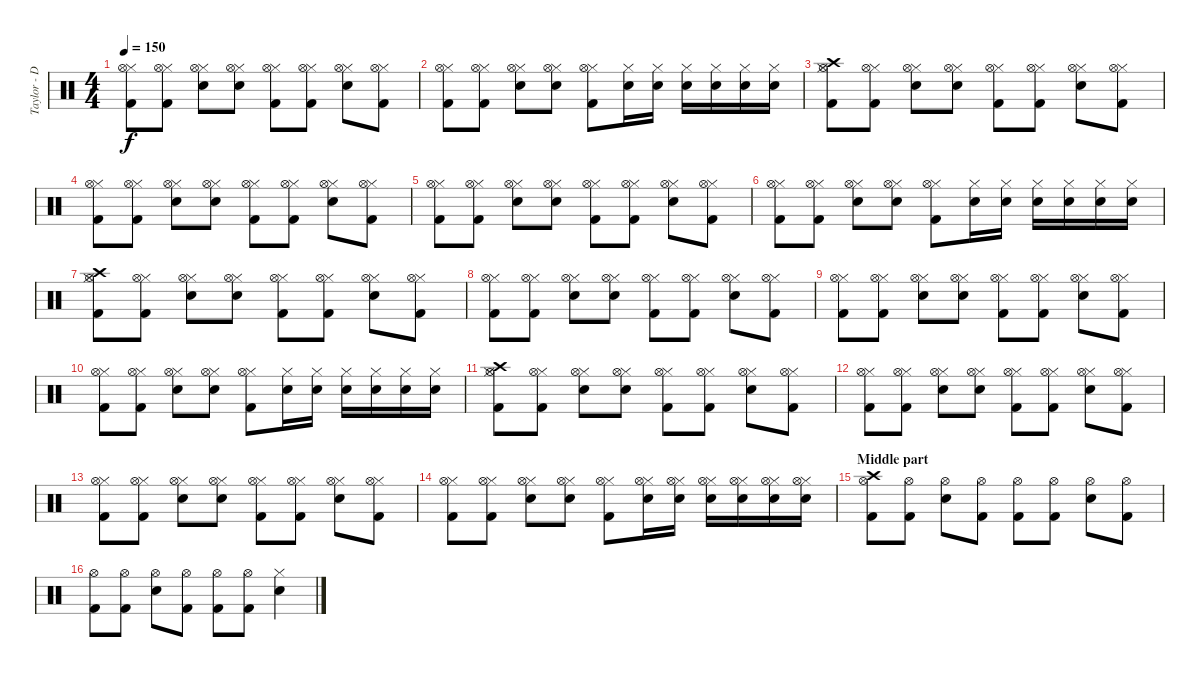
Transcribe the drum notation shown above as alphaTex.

\track ("Taylor - Drums" "Taylor - D") {instrument percussion}
\staff {score}
\articulation defaults
\ts (4 4)
\tempo 150
\clef neutral
\ks c
("Kick (hit) 2" "Hi-Hat (closed)" "Hi-Hat (open)").8{dy f} ("Kick (hit) 2" "Hi-Hat (closed)" "Hi-Hat (open)").8 ("Snare (hit) 2" "Hi-Hat (closed)" "Hi-Hat (open)").8 ("Snare (hit) 2" "Hi-Hat (closed)" "Hi-Hat (open)").8 ("Kick (hit) 2" "Hi-Hat (closed)" "Hi-Hat (open)").8 ("Kick (hit) 2" "Hi-Hat (closed)" "Hi-Hat (open)").8 ("Snare (hit) 2" "Hi-Hat (closed)" "Hi-Hat (open)").8 ("Kick (hit) 2" "Hi-Hat (closed)" "Hi-Hat (open)").8 |
("Kick (hit) 2" "Hi-Hat (closed)" "Hi-Hat (open)").8 ("Kick (hit) 2" "Hi-Hat (closed)" "Hi-Hat (open)").8 ("Snare (hit) 2" "Hi-Hat (closed)" "Hi-Hat (open)").8 ("Snare (hit) 2" "Hi-Hat (closed)" "Hi-Hat (open)").8 ("Kick (hit) 2" "Hi-Hat (closed)" "Hi-Hat (open)").8 ("Snare (hit) 2" "Hi-Hat (closed)").16 ("Snare (hit) 2" "Hi-Hat (closed)").16 ("Snare (hit) 2" "Hi-Hat (closed)").16 ("Snare (hit) 2" "Hi-Hat (closed)").16 ("Snare (hit) 2" "Hi-Hat (closed)").16 ("Snare (hit) 2" "Hi-Hat (closed)").16 |
("Kick (hit) 2" "Hi-Hat (closed)" "Hi-Hat (open)" "Crash high (hit)").8 ("Kick (hit) 2" "Hi-Hat (closed)" "Hi-Hat (open)").8 ("Snare (hit) 2" "Hi-Hat (closed)" "Hi-Hat (open)").8 ("Snare (hit) 2" "Hi-Hat (closed)" "Hi-Hat (open)").8 ("Kick (hit) 2" "Hi-Hat (closed)" "Hi-Hat (open)").8 ("Kick (hit) 2" "Hi-Hat (closed)" "Hi-Hat (open)").8 ("Snare (hit) 2" "Hi-Hat (closed)" "Hi-Hat (open)").8 ("Kick (hit) 2" "Hi-Hat (closed)" "Hi-Hat (open)").8 |
("Kick (hit) 2" "Hi-Hat (closed)" "Hi-Hat (open)").8 ("Kick (hit) 2" "Hi-Hat (closed)" "Hi-Hat (open)").8 ("Snare (hit) 2" "Hi-Hat (closed)" "Hi-Hat (open)").8 ("Snare (hit) 2" "Hi-Hat (closed)" "Hi-Hat (open)").8 ("Kick (hit) 2" "Hi-Hat (closed)" "Hi-Hat (open)").8 ("Kick (hit) 2" "Hi-Hat (closed)" "Hi-Hat (open)").8 ("Snare (hit) 2" "Hi-Hat (closed)" "Hi-Hat (open)").8 ("Kick (hit) 2" "Hi-Hat (closed)" "Hi-Hat (open)").8 |
("Kick (hit) 2" "Hi-Hat (closed)" "Hi-Hat (open)").8 ("Kick (hit) 2" "Hi-Hat (closed)" "Hi-Hat (open)").8 ("Snare (hit) 2" "Hi-Hat (closed)" "Hi-Hat (open)").8 ("Snare (hit) 2" "Hi-Hat (closed)" "Hi-Hat (open)").8 ("Kick (hit) 2" "Hi-Hat (closed)" "Hi-Hat (open)").8 ("Kick (hit) 2" "Hi-Hat (closed)" "Hi-Hat (open)").8 ("Snare (hit) 2" "Hi-Hat (closed)" "Hi-Hat (open)").8 ("Kick (hit) 2" "Hi-Hat (closed)" "Hi-Hat (open)").8 |
("Kick (hit) 2" "Hi-Hat (closed)" "Hi-Hat (open)").8 ("Kick (hit) 2" "Hi-Hat (closed)" "Hi-Hat (open)").8 ("Snare (hit) 2" "Hi-Hat (closed)" "Hi-Hat (open)").8 ("Snare (hit) 2" "Hi-Hat (closed)" "Hi-Hat (open)").8 ("Kick (hit) 2" "Hi-Hat (closed)" "Hi-Hat (open)").8 ("Snare (hit) 2" "Hi-Hat (closed)").16 ("Snare (hit) 2" "Hi-Hat (closed)").16 ("Snare (hit) 2" "Hi-Hat (closed)").16 ("Snare (hit) 2" "Hi-Hat (closed)").16 ("Snare (hit) 2" "Hi-Hat (closed)").16 ("Snare (hit) 2" "Hi-Hat (closed)").16 |
("Kick (hit) 2" "Hi-Hat (closed)" "Hi-Hat (open)" "Crash high (hit)").8 ("Kick (hit) 2" "Hi-Hat (closed)" "Hi-Hat (open)").8 ("Snare (hit) 2" "Hi-Hat (closed)" "Hi-Hat (open)").8 ("Snare (hit) 2" "Hi-Hat (closed)" "Hi-Hat (open)").8 ("Kick (hit) 2" "Hi-Hat (closed)" "Hi-Hat (open)").8 ("Kick (hit) 2" "Hi-Hat (closed)" "Hi-Hat (open)").8 ("Snare (hit) 2" "Hi-Hat (closed)" "Hi-Hat (open)").8 ("Kick (hit) 2" "Hi-Hat (closed)" "Hi-Hat (open)").8 |
("Kick (hit) 2" "Hi-Hat (closed)" "Hi-Hat (open)").8 ("Kick (hit) 2" "Hi-Hat (closed)" "Hi-Hat (open)").8 ("Snare (hit) 2" "Hi-Hat (closed)" "Hi-Hat (open)").8 ("Snare (hit) 2" "Hi-Hat (closed)" "Hi-Hat (open)").8 ("Kick (hit) 2" "Hi-Hat (closed)" "Hi-Hat (open)").8 ("Kick (hit) 2" "Hi-Hat (closed)" "Hi-Hat (open)").8 ("Snare (hit) 2" "Hi-Hat (closed)" "Hi-Hat (open)").8 ("Kick (hit) 2" "Hi-Hat (closed)" "Hi-Hat (open)").8 |
("Kick (hit) 2" "Hi-Hat (closed)" "Hi-Hat (open)").8 ("Kick (hit) 2" "Hi-Hat (closed)" "Hi-Hat (open)").8 ("Snare (hit) 2" "Hi-Hat (closed)" "Hi-Hat (open)").8 ("Snare (hit) 2" "Hi-Hat (closed)" "Hi-Hat (open)").8 ("Kick (hit) 2" "Hi-Hat (closed)" "Hi-Hat (open)").8 ("Kick (hit) 2" "Hi-Hat (closed)" "Hi-Hat (open)").8 ("Snare (hit) 2" "Hi-Hat (closed)" "Hi-Hat (open)").8 ("Kick (hit) 2" "Hi-Hat (closed)" "Hi-Hat (open)").8 |
("Kick (hit) 2" "Hi-Hat (closed)" "Hi-Hat (open)").8 ("Kick (hit) 2" "Hi-Hat (closed)" "Hi-Hat (open)").8 ("Snare (hit) 2" "Hi-Hat (closed)" "Hi-Hat (open)").8 ("Snare (hit) 2" "Hi-Hat (closed)" "Hi-Hat (open)").8 ("Kick (hit) 2" "Hi-Hat (closed)" "Hi-Hat (open)").8 ("Snare (hit) 2" "Hi-Hat (closed)").16 ("Snare (hit) 2" "Hi-Hat (closed)").16 ("Snare (hit) 2" "Hi-Hat (closed)").16 ("Snare (hit) 2" "Hi-Hat (closed)").16 ("Snare (hit) 2" "Hi-Hat (closed)").16 ("Snare (hit) 2" "Hi-Hat (closed)").16 |
("Kick (hit) 2" "Hi-Hat (closed)" "Hi-Hat (open)" "Crash high (hit)").8 ("Kick (hit) 2" "Hi-Hat (closed)" "Hi-Hat (open)").8 ("Snare (hit) 2" "Hi-Hat (closed)" "Hi-Hat (open)").8 ("Snare (hit) 2" "Hi-Hat (closed)" "Hi-Hat (open)").8 ("Kick (hit) 2" "Hi-Hat (closed)" "Hi-Hat (open)").8 ("Kick (hit) 2" "Hi-Hat (closed)" "Hi-Hat (open)").8 ("Snare (hit) 2" "Hi-Hat (closed)" "Hi-Hat (open)").8 ("Kick (hit) 2" "Hi-Hat (closed)" "Hi-Hat (open)").8 |
("Kick (hit) 2" "Hi-Hat (closed)" "Hi-Hat (open)").8 ("Kick (hit) 2" "Hi-Hat (closed)" "Hi-Hat (open)").8 ("Snare (hit) 2" "Hi-Hat (closed)" "Hi-Hat (open)").8 ("Snare (hit) 2" "Hi-Hat (closed)" "Hi-Hat (open)").8 ("Kick (hit) 2" "Hi-Hat (closed)" "Hi-Hat (open)").8 ("Kick (hit) 2" "Hi-Hat (closed)" "Hi-Hat (open)").8 ("Snare (hit) 2" "Hi-Hat (closed)" "Hi-Hat (open)").8 ("Kick (hit) 2" "Hi-Hat (closed)" "Hi-Hat (open)").8 |
("Kick (hit) 2" "Hi-Hat (closed)" "Hi-Hat (open)").8 ("Kick (hit) 2" "Hi-Hat (closed)" "Hi-Hat (open)").8 ("Snare (hit) 2" "Hi-Hat (closed)" "Hi-Hat (open)").8 ("Snare (hit) 2" "Hi-Hat (closed)" "Hi-Hat (open)").8 ("Kick (hit) 2" "Hi-Hat (closed)" "Hi-Hat (open)").8 ("Kick (hit) 2" "Hi-Hat (closed)" "Hi-Hat (open)").8 ("Snare (hit) 2" "Hi-Hat (closed)" "Hi-Hat (open)").8 ("Kick (hit) 2" "Hi-Hat (closed)" "Hi-Hat (open)").8 |
("Kick (hit) 2" "Hi-Hat (closed)" "Hi-Hat (open)").8 ("Kick (hit) 2" "Hi-Hat (closed)" "Hi-Hat (open)").8 ("Snare (hit) 2" "Hi-Hat (closed)" "Hi-Hat (open)").8 ("Snare (hit) 2" "Hi-Hat (closed)" "Hi-Hat (open)").8 ("Kick (hit) 2" "Hi-Hat (closed)" "Hi-Hat (open)").8 ("Snare (hit) 2" "Hi-Hat (closed)" "Hi-Hat (open)").16 ("Snare (hit) 2" "Hi-Hat (closed)" "Hi-Hat (open)").16 ("Snare (hit) 2" "Hi-Hat (closed)" "Hi-Hat (open)").16 ("Snare (hit) 2" "Hi-Hat (closed)" "Hi-Hat (open)").16 ("Snare (hit) 2" "Hi-Hat (closed)" "Hi-Hat (open)").16 ("Snare (hit) 2" "Hi-Hat (closed)" "Hi-Hat (open)").16 |
\section ("" "Middle part")
("Kick (hit) 2" "Hi-Hat (open)" "Crash high (hit)").8 ("Kick (hit) 2" "Hi-Hat (open)").8 ("Snare (hit) 2" "Hi-Hat (open)").8 ("Kick (hit) 2" "Hi-Hat (open)").8 ("Kick (hit) 2" "Hi-Hat (open)").8 ("Kick (hit) 2" "Hi-Hat (open)").8 ("Snare (hit) 2" "Hi-Hat (open)").8 ("Kick (hit) 2" "Hi-Hat (open)").8 |
("Kick (hit) 2" "Hi-Hat (open)").8 ("Kick (hit) 2" "Hi-Hat (open)").8 ("Snare (hit) 2" "Hi-Hat (open)").8 ("Kick (hit) 2" "Hi-Hat (open)").8 ("Kick (hit) 2" "Hi-Hat (open)").8 ("Kick (hit) 2" "Hi-Hat (open)").8 ("Snare (hit) 2" "Hi-Hat (closed)").4
